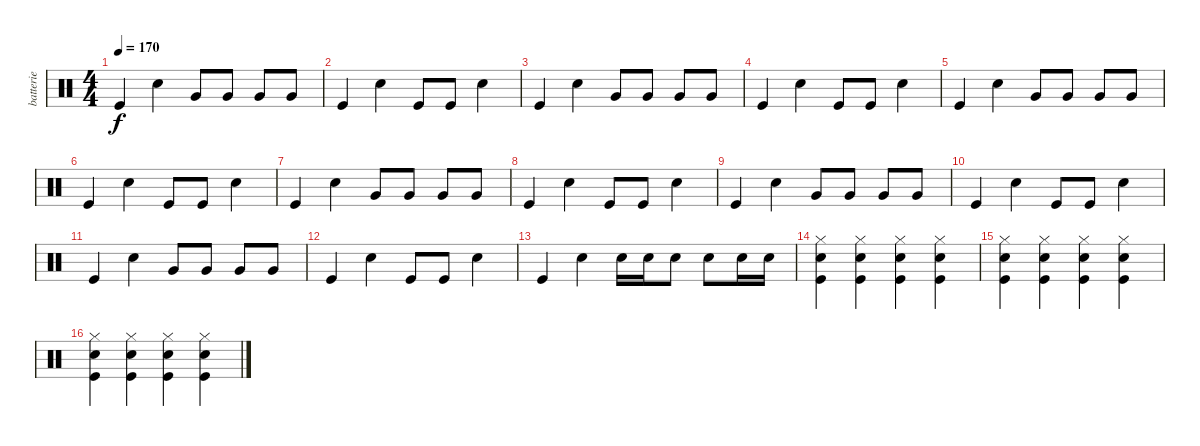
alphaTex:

\track ("batterie " "batterie ") {instrument percussion}
\staff {score}
\articulation defaults
\ts (4 4)
\tempo 170
\clef neutral
\ks c "Kick (hit)".4{dy f} "Snare (hit) 2".4 "Very Low Tom (hit)".8 "Very Low Tom (hit)".8 "Very Low Tom (hit)".8 "Very Low Tom (hit)".8
|
"Kick (hit)".4 "Snare (hit) 2".4 "Kick (hit)".8 "Kick (hit)".8 "Snare (hit) 2".4 |
"Kick (hit)".4 "Snare (hit) 2".4 "Very Low Tom (hit)".8 "Very Low Tom (hit)".8 "Very Low Tom (hit)".8 "Very Low Tom (hit)".8 |
"Kick (hit)".4 "Snare (hit) 2".4 "Kick (hit)".8 "Kick (hit)".8 "Snare (hit) 2".4 |
"Kick (hit)".4 "Snare (hit) 2".4 "Very Low Tom (hit)".8 "Very Low Tom (hit)".8 "Very Low Tom (hit)".8 "Very Low Tom (hit)".8 |
"Kick (hit)".4 "Snare (hit) 2".4 "Kick (hit)".8 "Kick (hit)".8 "Snare (hit) 2".4 |
"Kick (hit)".4 "Snare (hit) 2".4 "Very Low Tom (hit)".8 "Very Low Tom (hit)".8 "Very Low Tom (hit)".8 "Very Low Tom (hit)".8 |
"Kick (hit)".4 "Snare (hit) 2".4 "Kick (hit)".8 "Kick (hit)".8 "Snare (hit) 2".4 |
"Kick (hit)".4 "Snare (hit) 2".4 "Very Low Tom (hit)".8 "Very Low Tom (hit)".8 "Very Low Tom (hit)".8 "Very Low Tom (hit)".8 |
"Kick (hit)".4 "Snare (hit) 2".4 "Kick (hit)".8 "Kick (hit)".8 "Snare (hit) 2".4 |
"Kick (hit)".4 "Snare (hit) 2".4 "Very Low Tom (hit)".8 "Very Low Tom (hit)".8 "Very Low Tom (hit)".8 "Very Low Tom (hit)".8 |
"Kick (hit)".4 "Snare (hit) 2".4 "Kick (hit)".8 "Kick (hit)".8 "Snare (hit) 2".4 |
"Kick (hit)".4 "Snare (hit) 2".4 "Snare (hit) 2".16 "Snare (hit) 2".16 "Snare (hit) 2".8 "Snare (hit) 2".8 "Snare (hit) 2".16 "Snare (hit) 2".16 |
("Hi-Hat (closed)" "Snare (hit) 2" "Kick (hit)").4 ("Hi-Hat (closed)" "Snare (hit) 2" "Kick (hit)").4 ("Hi-Hat (closed)" "Snare (hit) 2" "Kick (hit)").4 ("Hi-Hat (closed)" "Snare (hit) 2" "Kick (hit)").4 |
("Hi-Hat (closed)" "Snare (hit) 2" "Kick (hit)").4 ("Hi-Hat (closed)" "Snare (hit) 2" "Kick (hit)").4 ("Hi-Hat (closed)" "Snare (hit) 2" "Kick (hit)").4 ("Hi-Hat (closed)" "Snare (hit) 2" "Kick (hit)").4 |
("Hi-Hat (closed)" "Snare (hit) 2" "Kick (hit)").4 ("Hi-Hat (closed)" "Snare (hit) 2" "Kick (hit)").4 ("Hi-Hat (closed)" "Snare (hit) 2" "Kick (hit)").4 ("Hi-Hat (closed)" "Snare (hit) 2" "Kick (hit)").4
